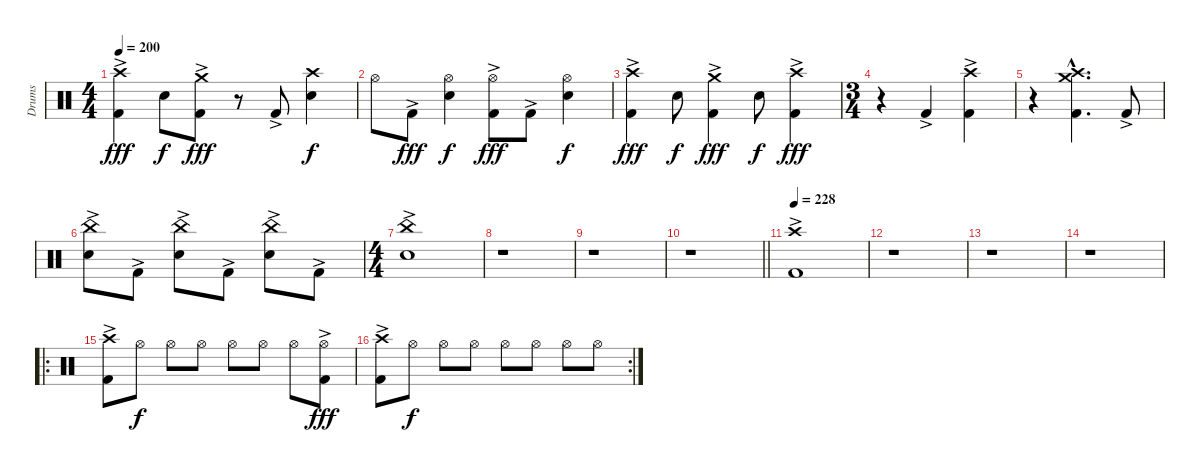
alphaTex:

\track ("Drums" "Drums") {instrument percussion}
\staff {score}
\articulation defaults
\ts (4 4)
\tempo 200
\clef neutral
\ks c
("Crash high (hit)" "Kick (hit) 2"{ac}).4{dy fff} "Snare (hit) 2".8{dy f} ("Crash medium (hit)" "Kick (hit) 2"{ac}).8{dy fff} r.8 "Kick (hit) 2"{ac}.8 ("Crash high (hit)" "Snare (hit) 2").4{dy f} |
"Hi-Hat (open)".8 "Kick (hit) 2"{ac}.8{dy fff} ("Hi-Hat (open)" "Snare (hit) 2").4{dy f} ("Hi-Hat (open)" "Kick (hit) 2"{ac}).8{dy fff} "Kick (hit) 2"{ac}.8 ("Hi-Hat (open)" "Snare (hit) 2").4{dy f} |
("Crash high (hit)" "Kick (hit) 2"{ac}).4{dy fff} "Snare (hit) 2".8{dy f} ("Crash medium (hit)" "Kick (hit) 2"{ac}).4{dy fff} "Snare (hit) 2".8{dy f} ("Crash high (hit)" "Kick (hit) 2"{ac}).4{dy fff} |
\ts (3 4)
r.4 "Kick (hit) 2"{ac}.4 ("Crash high (hit)" "Kick (hit) 2"{ac}).4 |
r.4 ("Crash high (hit)"{hac} "Crash medium (hit)"{hac} "Kick (hit) 2"{hac}).4{d} "Kick (hit) 2"{ac}.8 |
("China (hit)"{ac} "Snare (hit) 2").8 "Kick (hit) 2"{ac}.8 ("China (hit)"{ac} "Snare (hit) 2").8 "Kick (hit) 2"{ac}.8 ("China (hit)"{ac} "Snare (hit) 2").8 "Kick (hit) 2"{ac}.8 |
\ts (4 4)
("China (hit)"{ac} "Snare (hit) 2").1 |
r.1 |
r.1 |
\barLineRight lightlight
r.1 |
\tempo 228
("Crash high (hit)" "Kick (hit) 2"{ac}).1 |
r.1 |
r.1 |
r.1 |
\ro
("Crash high (hit)" "Kick (hit) 2"{ac}).8 "Hi-Hat (open)".8{dy f} "Hi-Hat (open)".8 "Hi-Hat (open)".8 "Hi-Hat (open)".8 "Hi-Hat (open)".8 "Hi-Hat (open)".8 ("Hi-Hat (open)" "Kick (hit) 2"{ac}).8{dy fff} |
\rc 2
("Crash high (hit)" "Kick (hit) 2"{ac}).8 "Hi-Hat (open)".8{dy f} "Hi-Hat (open)".8 "Hi-Hat (open)".8 "Hi-Hat (open)".8 "Hi-Hat (open)".8 "Hi-Hat (open)".8 "Hi-Hat (open)".8
